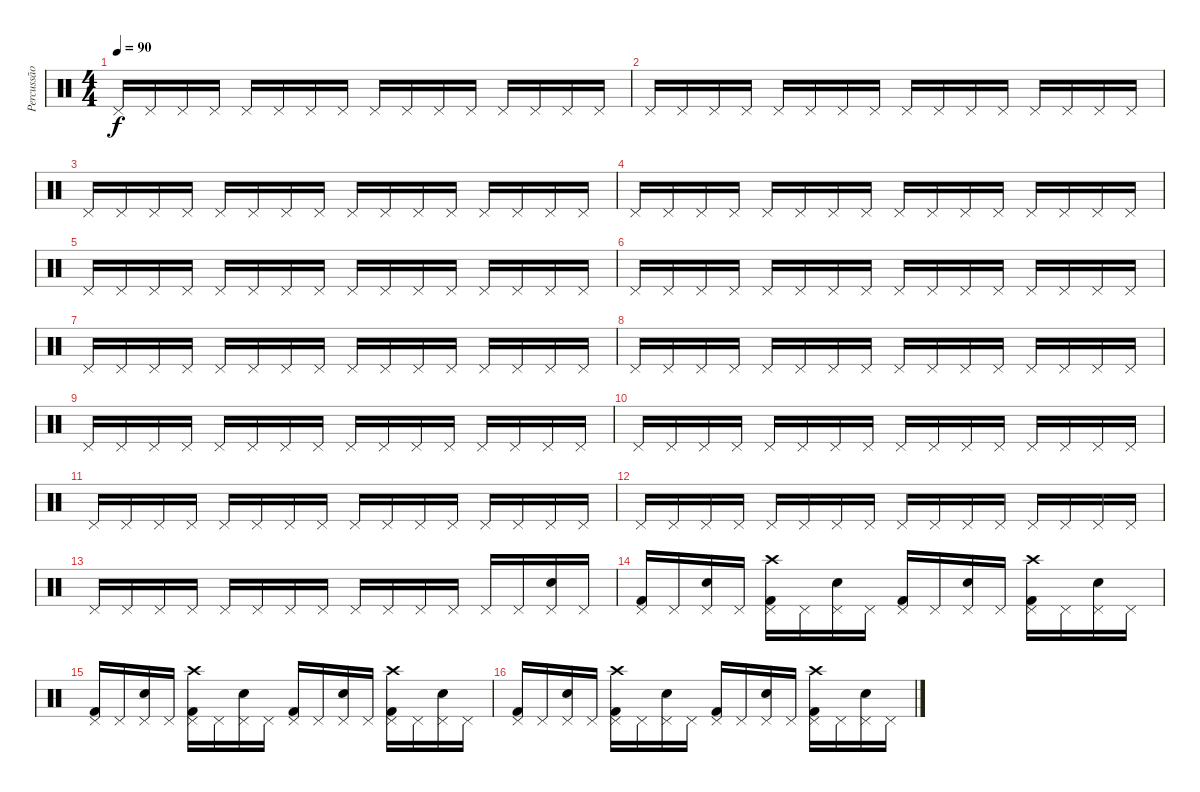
\track ("Percussão" "Percussão") {instrument percussion}
\staff {score}
\articulation defaults
\ts (4 4)
\tempo 90
\clef neutral
\ks c "Pedal Hi-Hat (hit)".16{dy f} "Pedal Hi-Hat (hit)".16 "Pedal Hi-Hat (hit)".16 "Pedal Hi-Hat (hit)".16 "Pedal Hi-Hat (hit)".16 "Pedal Hi-Hat (hit)".16 "Pedal Hi-Hat (hit)".16 "Pedal Hi-Hat (hit)".16 "Pedal Hi-Hat (hit)".16 "Pedal Hi-Hat (hit)".16 "Pedal Hi-Hat (hit)".16 "Pedal Hi-Hat (hit)".16 "Pedal Hi-Hat (hit)".16 "Pedal Hi-Hat (hit)".16 "Pedal Hi-Hat (hit)".16 "Pedal Hi-Hat (hit)".16
|
"Pedal Hi-Hat (hit)".16 "Pedal Hi-Hat (hit)".16 "Pedal Hi-Hat (hit)".16 "Pedal Hi-Hat (hit)".16 "Pedal Hi-Hat (hit)".16 "Pedal Hi-Hat (hit)".16 "Pedal Hi-Hat (hit)".16 "Pedal Hi-Hat (hit)".16 "Pedal Hi-Hat (hit)".16 "Pedal Hi-Hat (hit)".16 "Pedal Hi-Hat (hit)".16 "Pedal Hi-Hat (hit)".16 "Pedal Hi-Hat (hit)".16 "Pedal Hi-Hat (hit)".16 "Pedal Hi-Hat (hit)".16 "Pedal Hi-Hat (hit)".16 |
"Pedal Hi-Hat (hit)".16 "Pedal Hi-Hat (hit)".16 "Pedal Hi-Hat (hit)".16 "Pedal Hi-Hat (hit)".16 "Pedal Hi-Hat (hit)".16 "Pedal Hi-Hat (hit)".16 "Pedal Hi-Hat (hit)".16 "Pedal Hi-Hat (hit)".16 "Pedal Hi-Hat (hit)".16 "Pedal Hi-Hat (hit)".16 "Pedal Hi-Hat (hit)".16 "Pedal Hi-Hat (hit)".16 "Pedal Hi-Hat (hit)".16 "Pedal Hi-Hat (hit)".16 "Pedal Hi-Hat (hit)".16 "Pedal Hi-Hat (hit)".16 |
"Pedal Hi-Hat (hit)".16 "Pedal Hi-Hat (hit)".16 "Pedal Hi-Hat (hit)".16 "Pedal Hi-Hat (hit)".16 "Pedal Hi-Hat (hit)".16 "Pedal Hi-Hat (hit)".16 "Pedal Hi-Hat (hit)".16 "Pedal Hi-Hat (hit)".16 "Pedal Hi-Hat (hit)".16 "Pedal Hi-Hat (hit)".16 "Pedal Hi-Hat (hit)".16 "Pedal Hi-Hat (hit)".16 "Pedal Hi-Hat (hit)".16 "Pedal Hi-Hat (hit)".16 "Pedal Hi-Hat (hit)".16 "Pedal Hi-Hat (hit)".16 |
"Pedal Hi-Hat (hit)".16 "Pedal Hi-Hat (hit)".16 "Pedal Hi-Hat (hit)".16 "Pedal Hi-Hat (hit)".16 "Pedal Hi-Hat (hit)".16 "Pedal Hi-Hat (hit)".16 "Pedal Hi-Hat (hit)".16 "Pedal Hi-Hat (hit)".16 "Pedal Hi-Hat (hit)".16 "Pedal Hi-Hat (hit)".16 "Pedal Hi-Hat (hit)".16 "Pedal Hi-Hat (hit)".16 "Pedal Hi-Hat (hit)".16 "Pedal Hi-Hat (hit)".16 "Pedal Hi-Hat (hit)".16 "Pedal Hi-Hat (hit)".16 |
"Pedal Hi-Hat (hit)".16 "Pedal Hi-Hat (hit)".16 "Pedal Hi-Hat (hit)".16 "Pedal Hi-Hat (hit)".16 "Pedal Hi-Hat (hit)".16 "Pedal Hi-Hat (hit)".16 "Pedal Hi-Hat (hit)".16 "Pedal Hi-Hat (hit)".16 "Pedal Hi-Hat (hit)".16 "Pedal Hi-Hat (hit)".16 "Pedal Hi-Hat (hit)".16 "Pedal Hi-Hat (hit)".16 "Pedal Hi-Hat (hit)".16 "Pedal Hi-Hat (hit)".16 "Pedal Hi-Hat (hit)".16 "Pedal Hi-Hat (hit)".16 |
"Pedal Hi-Hat (hit)".16 "Pedal Hi-Hat (hit)".16 "Pedal Hi-Hat (hit)".16 "Pedal Hi-Hat (hit)".16 "Pedal Hi-Hat (hit)".16 "Pedal Hi-Hat (hit)".16 "Pedal Hi-Hat (hit)".16 "Pedal Hi-Hat (hit)".16 "Pedal Hi-Hat (hit)".16 "Pedal Hi-Hat (hit)".16 "Pedal Hi-Hat (hit)".16 "Pedal Hi-Hat (hit)".16 "Pedal Hi-Hat (hit)".16 "Pedal Hi-Hat (hit)".16 "Pedal Hi-Hat (hit)".16 "Pedal Hi-Hat (hit)".16 |
"Pedal Hi-Hat (hit)".16 "Pedal Hi-Hat (hit)".16 "Pedal Hi-Hat (hit)".16 "Pedal Hi-Hat (hit)".16 "Pedal Hi-Hat (hit)".16 "Pedal Hi-Hat (hit)".16 "Pedal Hi-Hat (hit)".16 "Pedal Hi-Hat (hit)".16 "Pedal Hi-Hat (hit)".16 "Pedal Hi-Hat (hit)".16 "Pedal Hi-Hat (hit)".16 "Pedal Hi-Hat (hit)".16 "Pedal Hi-Hat (hit)".16 "Pedal Hi-Hat (hit)".16 "Pedal Hi-Hat (hit)".16 "Pedal Hi-Hat (hit)".16 |
"Pedal Hi-Hat (hit)".16 "Pedal Hi-Hat (hit)".16 "Pedal Hi-Hat (hit)".16 "Pedal Hi-Hat (hit)".16 "Pedal Hi-Hat (hit)".16 "Pedal Hi-Hat (hit)".16 "Pedal Hi-Hat (hit)".16 "Pedal Hi-Hat (hit)".16 "Pedal Hi-Hat (hit)".16 "Pedal Hi-Hat (hit)".16 "Pedal Hi-Hat (hit)".16 "Pedal Hi-Hat (hit)".16 "Pedal Hi-Hat (hit)".16 "Pedal Hi-Hat (hit)".16 "Pedal Hi-Hat (hit)".16 "Pedal Hi-Hat (hit)".16 |
"Pedal Hi-Hat (hit)".16 "Pedal Hi-Hat (hit)".16 "Pedal Hi-Hat (hit)".16 "Pedal Hi-Hat (hit)".16 "Pedal Hi-Hat (hit)".16 "Pedal Hi-Hat (hit)".16 "Pedal Hi-Hat (hit)".16 "Pedal Hi-Hat (hit)".16 "Pedal Hi-Hat (hit)".16 "Pedal Hi-Hat (hit)".16 "Pedal Hi-Hat (hit)".16 "Pedal Hi-Hat (hit)".16 "Pedal Hi-Hat (hit)".16 "Pedal Hi-Hat (hit)".16 "Pedal Hi-Hat (hit)".16 "Pedal Hi-Hat (hit)".16 |
"Pedal Hi-Hat (hit)".16 "Pedal Hi-Hat (hit)".16 "Pedal Hi-Hat (hit)".16 "Pedal Hi-Hat (hit)".16 "Pedal Hi-Hat (hit)".16 "Pedal Hi-Hat (hit)".16 "Pedal Hi-Hat (hit)".16 "Pedal Hi-Hat (hit)".16 "Pedal Hi-Hat (hit)".16 "Pedal Hi-Hat (hit)".16 "Pedal Hi-Hat (hit)".16 "Pedal Hi-Hat (hit)".16 "Pedal Hi-Hat (hit)".16 "Pedal Hi-Hat (hit)".16 "Pedal Hi-Hat (hit)".16 "Pedal Hi-Hat (hit)".16 |
"Pedal Hi-Hat (hit)".16 "Pedal Hi-Hat (hit)".16 "Pedal Hi-Hat (hit)".16 "Pedal Hi-Hat (hit)".16 "Pedal Hi-Hat (hit)".16 "Pedal Hi-Hat (hit)".16 "Pedal Hi-Hat (hit)".16 "Pedal Hi-Hat (hit)".16 "Pedal Hi-Hat (hit)".16 "Pedal Hi-Hat (hit)".16 "Pedal Hi-Hat (hit)".16 "Pedal Hi-Hat (hit)".16 "Pedal Hi-Hat (hit)".16 "Pedal Hi-Hat (hit)".16 "Pedal Hi-Hat (hit)".16 "Pedal Hi-Hat (hit)".16 |
"Pedal Hi-Hat (hit)".16 "Pedal Hi-Hat (hit)".16 "Pedal Hi-Hat (hit)".16 "Pedal Hi-Hat (hit)".16 "Pedal Hi-Hat (hit)".16 "Pedal Hi-Hat (hit)".16 "Pedal Hi-Hat (hit)".16 "Pedal Hi-Hat (hit)".16 "Pedal Hi-Hat (hit)".16 "Pedal Hi-Hat (hit)".16 "Pedal Hi-Hat (hit)".16 "Pedal Hi-Hat (hit)".16 "Pedal Hi-Hat (hit)".16 "Pedal Hi-Hat (hit)".16 ("Pedal Hi-Hat (hit)" "Electric Snare (hit)").16 "Pedal Hi-Hat (hit)".16 |
("Pedal Hi-Hat (hit)" "Kick (hit) 2").16 "Pedal Hi-Hat (hit)".16 ("Pedal Hi-Hat (hit)" "Electric Snare (hit)").16 "Pedal Hi-Hat (hit)".16 ("Crash high (hit)" "Pedal Hi-Hat (hit)" "Kick (hit) 2").16 "Pedal Hi-Hat (hit)".16 ("Pedal Hi-Hat (hit)" "Electric Snare (hit)").16 "Pedal Hi-Hat (hit)".16 ("Pedal Hi-Hat (hit)" "Kick (hit) 2").16 "Pedal Hi-Hat (hit)".16 ("Pedal Hi-Hat (hit)" "Electric Snare (hit)").16 "Pedal Hi-Hat (hit)".16 ("Crash high (hit)" "Pedal Hi-Hat (hit)" "Kick (hit) 2").16 "Pedal Hi-Hat (hit)".16 ("Pedal Hi-Hat (hit)" "Electric Snare (hit)").16 "Pedal Hi-Hat (hit)".16 |
("Pedal Hi-Hat (hit)" "Kick (hit) 2").16 "Pedal Hi-Hat (hit)".16 ("Pedal Hi-Hat (hit)" "Electric Snare (hit)").16 "Pedal Hi-Hat (hit)".16 ("Crash high (hit)" "Pedal Hi-Hat (hit)" "Kick (hit) 2").16 "Pedal Hi-Hat (hit)".16 ("Pedal Hi-Hat (hit)" "Electric Snare (hit)").16 "Pedal Hi-Hat (hit)".16 ("Pedal Hi-Hat (hit)" "Kick (hit) 2").16 "Pedal Hi-Hat (hit)".16 ("Pedal Hi-Hat (hit)" "Electric Snare (hit)").16 "Pedal Hi-Hat (hit)".16 ("Crash high (hit)" "Pedal Hi-Hat (hit)" "Kick (hit) 2").16 "Pedal Hi-Hat (hit)".16 ("Pedal Hi-Hat (hit)" "Electric Snare (hit)").16 "Pedal Hi-Hat (hit)".16 |
("Pedal Hi-Hat (hit)" "Kick (hit) 2").16 "Pedal Hi-Hat (hit)".16 ("Pedal Hi-Hat (hit)" "Electric Snare (hit)").16 "Pedal Hi-Hat (hit)".16 ("Crash high (hit)" "Pedal Hi-Hat (hit)" "Kick (hit) 2").16 "Pedal Hi-Hat (hit)".16 ("Pedal Hi-Hat (hit)" "Electric Snare (hit)").16 "Pedal Hi-Hat (hit)".16 ("Pedal Hi-Hat (hit)" "Kick (hit) 2").16 "Pedal Hi-Hat (hit)".16 ("Pedal Hi-Hat (hit)" "Electric Snare (hit)").16 "Pedal Hi-Hat (hit)".16 ("Crash high (hit)" "Pedal Hi-Hat (hit)" "Kick (hit) 2").16 "Pedal Hi-Hat (hit)".16 ("Pedal Hi-Hat (hit)" "Electric Snare (hit)").16 "Pedal Hi-Hat (hit)".16
